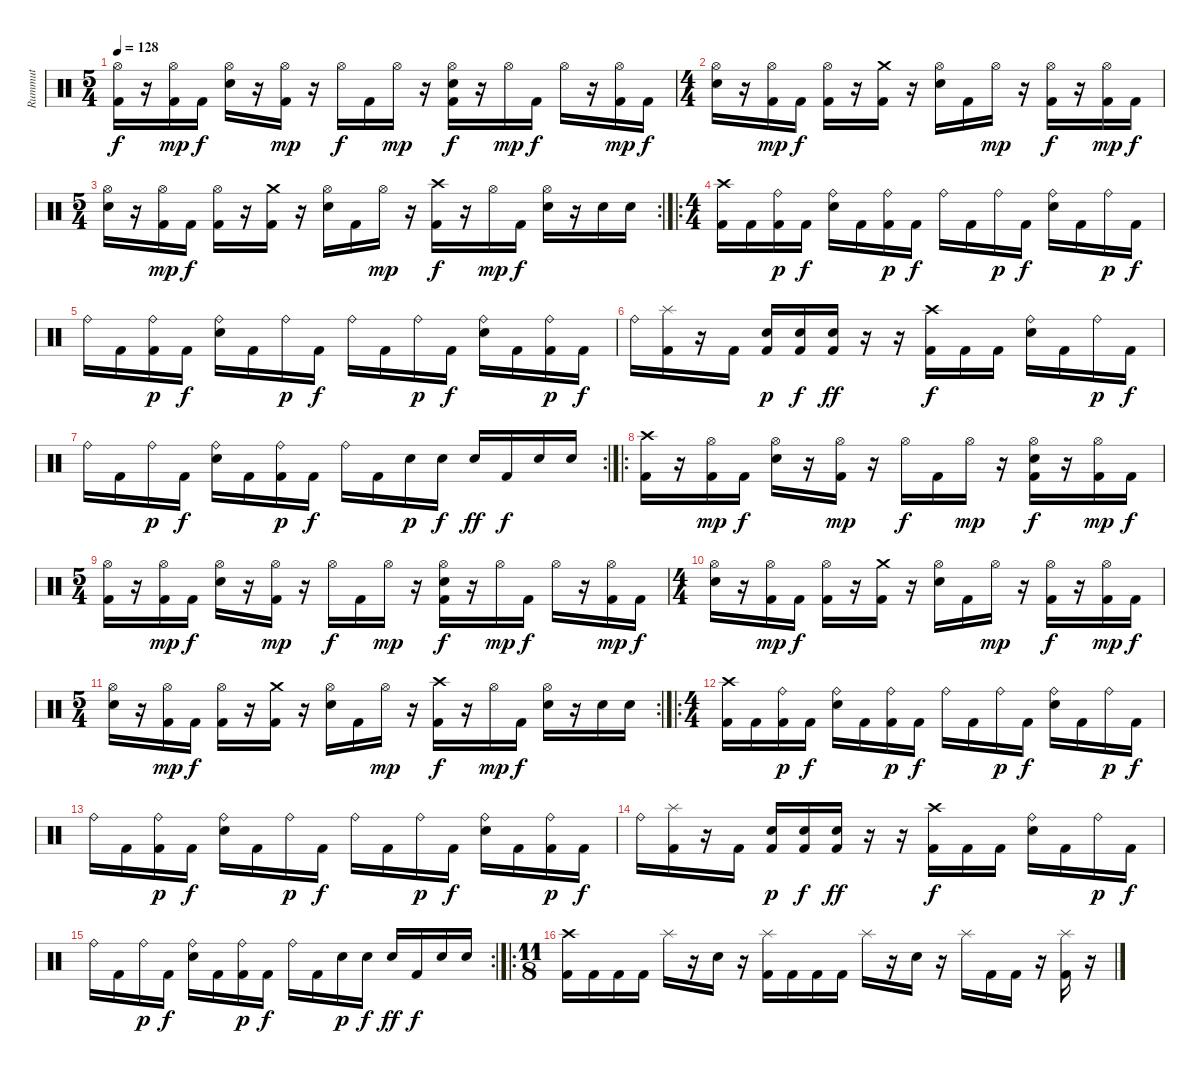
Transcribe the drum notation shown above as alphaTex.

\track ("Rummut" "Rummut") {instrument percussion}
\staff {score}
\articulation defaults
\ts (5 4)
\tempo 128
\clef neutral
\ks c
("Hi-Hat (open)" "Kick (hit) 2").16{dy f} r.16 ("Hi-Hat (open)" "Kick (hit) 2").16{dy mp} "Kick (hit) 2".16{dy f} ("Hi-Hat (open)" "Electric Snare (hit)").16 r.16 ("Hi-Hat (open)" "Kick (hit) 2").16{dy mp} r.16 "Hi-Hat (open)".16{dy f} "Kick (hit) 2".16 "Hi-Hat (open)".16{dy mp} r.16 ("Hi-Hat (open)" "Electric Snare (hit)" "Kick (hit) 2").16{dy f} r.16 "Hi-Hat (open)".16{dy mp} "Kick (hit) 2".16{dy f} "Hi-Hat (open)".16 r.16 ("Hi-Hat (open)" "Kick (hit) 2").16{dy mp} "Kick (hit) 2".16{dy f} |
\ts (4 4)
("Hi-Hat (open)" "Electric Snare (hit)").16 r.16 ("Hi-Hat (open)" "Kick (hit) 2").16{dy mp} "Kick (hit) 2".16{dy f} ("Hi-Hat (open)" "Kick (hit) 2").16 r.16 ("Crash medium (hit)" "Kick (hit) 2").16 r.16 ("Hi-Hat (open)" "Electric Snare (hit)").16 "Kick (hit) 2".16 "Hi-Hat (open)".16{dy mp} r.16 ("Hi-Hat (open)" "Kick (hit) 2").16{dy f} r.16 ("Hi-Hat (open)" "Kick (hit) 2").16{dy mp} "Kick (hit) 2".16{dy f} |
\rc 2
\ts (5 4)
("Hi-Hat (open)" "Electric Snare (hit)").16 r.16 ("Hi-Hat (open)" "Kick (hit) 2").16{dy mp} "Kick (hit) 2".16{dy f} ("Hi-Hat (open)" "Kick (hit) 2").16 r.16 ("Crash medium (hit)" "Kick (hit) 2").16 r.16 ("Hi-Hat (open)" "Electric Snare (hit)").16 "Kick (hit) 2".16 "Hi-Hat (open)".16{dy mp} r.16 ("Crash high (hit)" "Kick (hit) 2").16{dy f} r.16 "Hi-Hat (open)".16{dy mp} "Kick (hit) 2".16{dy f} ("Hi-Hat (open)" "Electric Snare (hit)").16 r.16 "Electric Snare (hit)".16 "Electric Snare (hit)".16 |
\ro
\ts (4 4)
("Crash high (hit)" "Kick (hit) 2").16 "Kick (hit) 2".16 ("Ride (bell)" "Kick (hit) 2").16{dy p} "Kick (hit) 2".16{dy f} ("Ride (bell)" "Electric Snare (hit)").16 "Kick (hit) 2".16 ("Ride (bell)" "Kick (hit) 2").16{dy p} "Kick (hit) 2".16{dy f} "Ride (bell)".16 "Kick (hit) 2".16 "Ride (bell)".16{dy p} "Kick (hit) 2".16{dy f} ("Ride (bell)" "Electric Snare (hit)").16 "Kick (hit) 2".16 "Ride (bell)".16{dy p} "Kick (hit) 2".16{dy f} |
"Ride (bell)".16 "Kick (hit) 2".16 ("Ride (bell)" "Kick (hit) 2").16{dy p} "Kick (hit) 2".16{dy f} ("Ride (bell)" "Electric Snare (hit)").16 "Kick (hit) 2".16 "Ride (bell)".16{dy p} "Kick (hit) 2".16{dy f} "Ride (bell)".16 "Kick (hit) 2".16 "Ride (bell)".16{dy p} "Kick (hit) 2".16{dy f} ("Ride (bell)" "Electric Snare (hit)").16 "Kick (hit) 2".16 ("Ride (bell)" "Kick (hit) 2").16{dy p} "Kick (hit) 2".16{dy f} |
"Ride (bell)".16 ("Splash (hit)" "Kick (hit) 2").16 r.16 "Kick (hit) 2".16 ("Electric Snare (hit)" "Kick (hit) 2").16{dy p} ("Electric Snare (hit)" "Kick (hit) 2").16{dy f} ("Electric Snare (hit)" "Kick (hit) 2").16{dy ff} r.16 r.16 ("Crash high (hit)" "Kick (hit) 2").16{dy f} "Kick (hit) 2".16 "Kick (hit) 2".16 ("Ride (bell)" "Electric Snare (hit)").16 "Kick (hit) 2".16 "Ride (bell)".16{dy p} "Kick (hit) 2".16{dy f} |
\rc 2 "Ride (bell)".16 "Kick (hit) 2".16 "Ride (bell)".16{dy p} "Kick (hit) 2".16{dy f}
("Ride (bell)" "Electric Snare (hit)").16 "Kick (hit) 2".16 ("Ride (bell)" "Kick (hit) 2").16{dy p} "Kick (hit) 2".16{dy f} "Ride (bell)".16 "Kick (hit) 2".16 "Electric Snare (hit)".16{dy p} "Electric Snare (hit)".16{dy f} "Electric Snare (hit)".16{dy ff} "Kick (hit) 2".16{dy f} "Electric Snare (hit)".16 "Electric Snare (hit)".16 |
\ro
("Crash high (hit)" "Kick (hit) 2").16 r.16 ("Hi-Hat (open)" "Kick (hit) 2").16{dy mp} "Kick (hit) 2".16{dy f} ("Hi-Hat (open)" "Electric Snare (hit)").16 r.16 ("Hi-Hat (open)" "Kick (hit) 2").16{dy mp} r.16 "Hi-Hat (open)".16{dy f} "Kick (hit) 2".16 "Hi-Hat (open)".16{dy mp} r.16 ("Hi-Hat (open)" "Electric Snare (hit)" "Kick (hit) 2").16{dy f} r.16 ("Hi-Hat (open)" "Kick (hit) 2").16{dy mp} "Kick (hit) 2".16{dy f} |
\ts (5 4)
("Hi-Hat (open)" "Kick (hit) 2").16 r.16 ("Hi-Hat (open)" "Kick (hit) 2").16{dy mp} "Kick (hit) 2".16{dy f} ("Hi-Hat (open)" "Electric Snare (hit)").16 r.16 ("Hi-Hat (open)" "Kick (hit) 2").16{dy mp} r.16 "Hi-Hat (open)".16{dy f} "Kick (hit) 2".16 "Hi-Hat (open)".16{dy mp} r.16 ("Hi-Hat (open)" "Electric Snare (hit)" "Kick (hit) 2").16{dy f} r.16 "Hi-Hat (open)".16{dy mp} "Kick (hit) 2".16{dy f} "Hi-Hat (open)".16 r.16 ("Hi-Hat (open)" "Kick (hit) 2").16{dy mp} "Kick (hit) 2".16{dy f} |
\ts (4 4)
("Hi-Hat (open)" "Electric Snare (hit)").16 r.16 ("Hi-Hat (open)" "Kick (hit) 2").16{dy mp} "Kick (hit) 2".16{dy f} ("Hi-Hat (open)" "Kick (hit) 2").16 r.16 ("Crash medium (hit)" "Kick (hit) 2").16 r.16 ("Hi-Hat (open)" "Electric Snare (hit)").16 "Kick (hit) 2".16 "Hi-Hat (open)".16{dy mp} r.16 ("Hi-Hat (open)" "Kick (hit) 2").16{dy f} r.16 ("Hi-Hat (open)" "Kick (hit) 2").16{dy mp} "Kick (hit) 2".16{dy f} |
\rc 2
\ts (5 4)
("Hi-Hat (open)" "Electric Snare (hit)").16 r.16 ("Hi-Hat (open)" "Kick (hit) 2").16{dy mp} "Kick (hit) 2".16{dy f} ("Hi-Hat (open)" "Kick (hit) 2").16 r.16 ("Crash medium (hit)" "Kick (hit) 2").16 r.16 ("Hi-Hat (open)" "Electric Snare (hit)").16 "Kick (hit) 2".16 "Hi-Hat (open)".16{dy mp} r.16 ("Crash high (hit)" "Kick (hit) 2").16{dy f} r.16 "Hi-Hat (open)".16{dy mp} "Kick (hit) 2".16{dy f} ("Hi-Hat (open)" "Electric Snare (hit)").16 r.16 "Electric Snare (hit)".16 "Electric Snare (hit)".16 |
\ro
\ts (4 4)
("Crash high (hit)" "Kick (hit) 2").16 "Kick (hit) 2".16 ("Ride (bell)" "Kick (hit) 2").16{dy p} "Kick (hit) 2".16{dy f} ("Ride (bell)" "Electric Snare (hit)").16 "Kick (hit) 2".16 ("Ride (bell)" "Kick (hit) 2").16{dy p} "Kick (hit) 2".16{dy f} "Ride (bell)".16 "Kick (hit) 2".16 "Ride (bell)".16{dy p} "Kick (hit) 2".16{dy f} ("Ride (bell)" "Electric Snare (hit)").16 "Kick (hit) 2".16 "Ride (bell)".16{dy p} "Kick (hit) 2".16{dy f} |
"Ride (bell)".16 "Kick (hit) 2".16 ("Ride (bell)" "Kick (hit) 2").16{dy p} "Kick (hit) 2".16{dy f} ("Ride (bell)" "Electric Snare (hit)").16 "Kick (hit) 2".16 "Ride (bell)".16{dy p} "Kick (hit) 2".16{dy f} "Ride (bell)".16 "Kick (hit) 2".16 "Ride (bell)".16{dy p} "Kick (hit) 2".16{dy f} ("Ride (bell)" "Electric Snare (hit)").16 "Kick (hit) 2".16 ("Ride (bell)" "Kick (hit) 2").16{dy p} "Kick (hit) 2".16{dy f} |
"Ride (bell)".16 ("Splash (hit)" "Kick (hit) 2").16 r.16 "Kick (hit) 2".16 ("Electric Snare (hit)" "Kick (hit) 2").16{dy p} ("Electric Snare (hit)" "Kick (hit) 2").16{dy f} ("Electric Snare (hit)" "Kick (hit) 2").16{dy ff} r.16 r.16 ("Crash high (hit)" "Kick (hit) 2").16{dy f} "Kick (hit) 2".16 "Kick (hit) 2".16 ("Ride (bell)" "Electric Snare (hit)").16 "Kick (hit) 2".16 "Ride (bell)".16{dy p} "Kick (hit) 2".16{dy f} |
\rc 2 "Ride (bell)".16 "Kick (hit) 2".16 "Ride (bell)".16{dy p} "Kick (hit) 2".16{dy f}
("Ride (bell)" "Electric Snare (hit)").16 "Kick (hit) 2".16 ("Ride (bell)" "Kick (hit) 2").16{dy p} "Kick (hit) 2".16{dy f} "Ride (bell)".16 "Kick (hit) 2".16 "Electric Snare (hit)".16{dy p} "Electric Snare (hit)".16{dy f} "Electric Snare (hit)".16{dy ff} "Kick (hit) 2".16{dy f} "Electric Snare (hit)".16 "Electric Snare (hit)".16 |
\ro
\ts (11 8)
("Crash high (hit)" "Kick (hit) 2").16 "Kick (hit) 2".16 "Kick (hit) 2".16 "Kick (hit) 2".16 "Splash (hit)".16 r.16 "Electric Snare (hit)".16 r.16 ("Splash (hit)" "Kick (hit) 2").16 "Kick (hit) 2".16 "Kick (hit) 2".16 "Kick (hit) 2".16 "Splash (hit)".16 r.16 "Electric Snare (hit)".16 r.16 "Splash (hit)".16 "Kick (hit) 2".16 "Kick (hit) 2".16 r.16 ("Splash (hit)" "Kick (hit) 2").16 r.16
